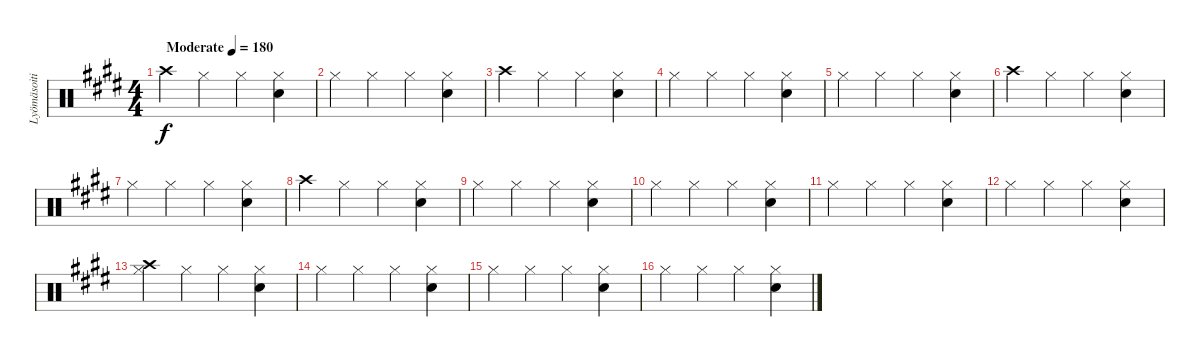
\track ("Lyömäsoitin" "Lyömäsoiti") {instrument percussion}
\staff {score}
\articulation defaults
\ts (4 4)
\tempo (180 "Moderate")
\clef neutral
\ks e "Crash high (hit)".4{dy f} "Hi-Hat (closed)".4 "Hi-Hat (closed)".4
("Hi-Hat (closed)" "Electric Snare (hit)").4 |
"Hi-Hat (closed)".4 "Hi-Hat (closed)".4 "Hi-Hat (closed)".4 ("Hi-Hat (closed)" "Electric Snare (hit)").4 |
"Crash high (hit)".4 "Hi-Hat (closed)".4 "Hi-Hat (closed)".4 ("Hi-Hat (closed)" "Electric Snare (hit)").4 |
"Hi-Hat (closed)".4 "Hi-Hat (closed)".4 "Hi-Hat (closed)".4 ("Hi-Hat (closed)" "Electric Snare (hit)").4 |
"Hi-Hat (closed)".4 "Hi-Hat (closed)".4 "Hi-Hat (closed)".4 ("Hi-Hat (closed)" "Electric Snare (hit)").4 |
"Crash high (hit)".4 "Hi-Hat (closed)".4 "Hi-Hat (closed)".4 ("Hi-Hat (closed)" "Electric Snare (hit)").4 |
"Hi-Hat (closed)".4 "Hi-Hat (closed)".4 "Hi-Hat (closed)".4 ("Hi-Hat (closed)" "Electric Snare (hit)").4 |
"Crash high (hit)".4 "Hi-Hat (closed)".4 "Hi-Hat (closed)".4 ("Hi-Hat (closed)" "Electric Snare (hit)").4 |
"Hi-Hat (closed)".4 "Hi-Hat (closed)".4 "Hi-Hat (closed)".4 ("Hi-Hat (closed)" "Electric Snare (hit)").4 |
"Hi-Hat (closed)".4 "Hi-Hat (closed)".4 "Hi-Hat (closed)".4 ("Hi-Hat (closed)" "Electric Snare (hit)").4 |
"Hi-Hat (closed)".4 "Hi-Hat (closed)".4 "Hi-Hat (closed)".4 ("Hi-Hat (closed)" "Electric Snare (hit)").4 |
"Hi-Hat (closed)".4 "Hi-Hat (closed)".4 "Hi-Hat (closed)".4 ("Hi-Hat (closed)" "Electric Snare (hit)").4 |
("Crash high (hit)" "Hi-Hat (closed)").4 "Hi-Hat (closed)".4 "Hi-Hat (closed)".4 ("Hi-Hat (closed)" "Electric Snare (hit)").4 |
"Hi-Hat (closed)".4 "Hi-Hat (closed)".4 "Hi-Hat (closed)".4 ("Hi-Hat (closed)" "Electric Snare (hit)").4 |
"Hi-Hat (closed)".4 "Hi-Hat (closed)".4 "Hi-Hat (closed)".4 ("Hi-Hat (closed)" "Electric Snare (hit)").4 |
"Hi-Hat (closed)".4 "Hi-Hat (closed)".4 "Hi-Hat (closed)".4 ("Hi-Hat (closed)" "Electric Snare (hit)").4
